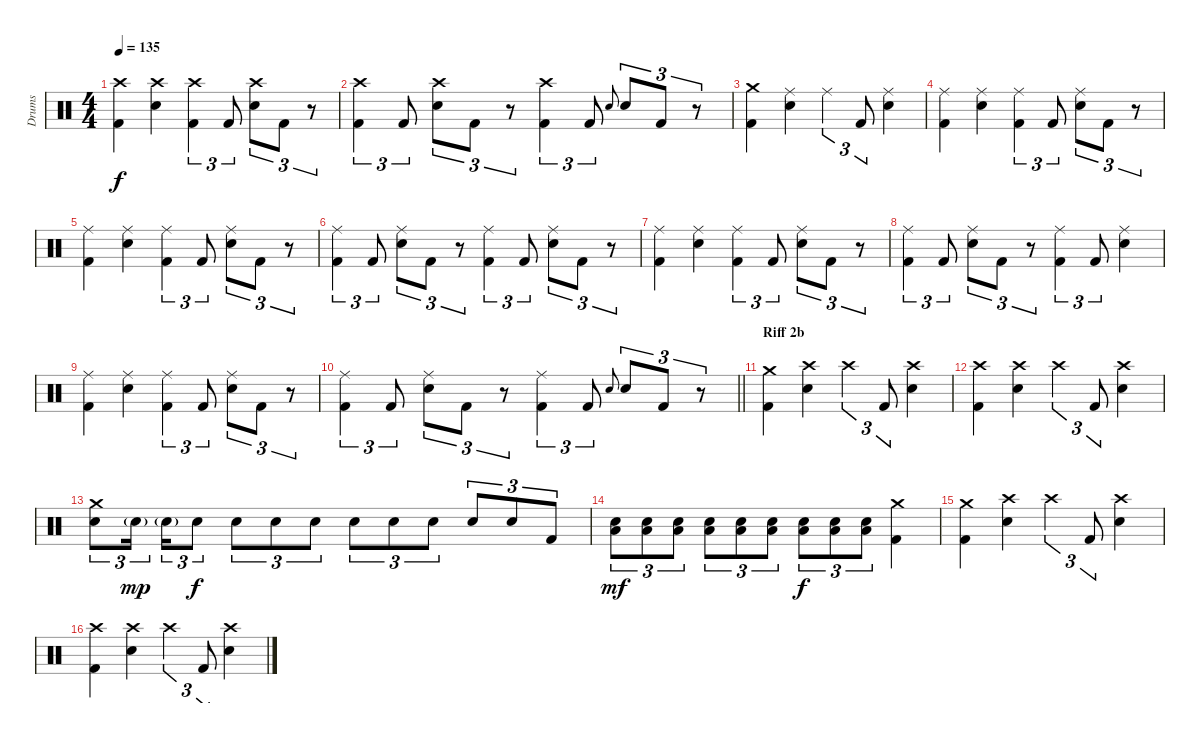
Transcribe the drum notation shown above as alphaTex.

\track ("Drums" "Drums") {instrument percussion}
\staff {score}
\articulation defaults
\ts (4 4)
\tempo 135
\clef neutral
\ks c
("Kick (hit) 2" "Crash high (hit)").4{dy f} ("Electric Snare (hit)" "Crash high (hit)").4 ("Crash high (hit)" "Kick (hit) 2").4{tu (3 2)} "Kick (hit) 2".8{tu (3 2)} ("Crash high (hit)" "Electric Snare (hit)").8{tu (3 2)} "Kick (hit) 2".8{tu (3 2)} r.8{tu (3 2)} |
("Crash high (hit)" "Kick (hit) 2").4{tu (3 2)} "Kick (hit) 2".8{tu (3 2)} ("Crash high (hit)" "Electric Snare (hit)").8{tu (3 2)} "Kick (hit) 2".8{tu (3 2)} r.8{tu (3 2)} ("Crash high (hit)" "Kick (hit) 2").4{tu (3 2)} "Kick (hit) 2".8{tu (3 2)} "Electric Snare (hit)".8{gr onbeat} "Electric Snare (hit)".8{tu (3 2)} "Kick (hit) 2".8{tu (3 2)} r.8{tu (3 2)} |
("Crash medium (hit)" "Kick (hit) 2").4 ("Ride (middle)" "Electric Snare (hit)").4 "Ride (middle)".4{tu (3 2)} "Kick (hit) 2".8{tu (3 2)} ("Ride (middle)" "Electric Snare (hit)").4 |
("Ride (middle)" "Kick (hit) 2").4 ("Ride (middle)" "Electric Snare (hit)").4 ("Kick (hit) 2" "Ride (middle)").4{tu (3 2)} "Kick (hit) 2".8{tu (3 2)} ("Electric Snare (hit)" "Ride (middle)").8{tu (3 2)} "Kick (hit) 2".8{tu (3 2)} r.8{tu (3 2)} |
("Ride (middle)" "Kick (hit) 2").4 ("Ride (middle)" "Electric Snare (hit)").4 ("Kick (hit) 2" "Ride (middle)").4{tu (3 2)} "Kick (hit) 2".8{tu (3 2)} ("Electric Snare (hit)" "Ride (middle)").8{tu (3 2)} "Kick (hit) 2".8{tu (3 2)} r.8{tu (3 2)} |
("Kick (hit) 2" "Ride (middle)").4{tu (3 2)} "Kick (hit) 2".8{tu (3 2)} ("Electric Snare (hit)" "Ride (middle)").8{tu (3 2)} "Kick (hit) 2".8{tu (3 2)} r.8{tu (3 2)} ("Kick (hit) 2" "Ride (middle)").4{tu (3 2)} "Kick (hit) 2".8{tu (3 2)} ("Electric Snare (hit)" "Ride (middle)").8{tu (3 2)} "Kick (hit) 2".8{tu (3 2)} r.8{tu (3 2)} |
("Ride (middle)" "Kick (hit) 2").4 ("Ride (middle)" "Electric Snare (hit)").4 ("Kick (hit) 2" "Ride (middle)").4{tu (3 2)} "Kick (hit) 2".8{tu (3 2)} ("Electric Snare (hit)" "Ride (middle)").8{tu (3 2)} "Kick (hit) 2".8{tu (3 2)} r.8{tu (3 2)} |
("Kick (hit) 2" "Ride (middle)").4{tu (3 2)} "Kick (hit) 2".8{tu (3 2)} ("Electric Snare (hit)" "Ride (middle)").8{tu (3 2)} "Kick (hit) 2".8{tu (3 2)} r.8{tu (3 2)} ("Kick (hit) 2" "Ride (middle)").4{tu (3 2)} "Kick (hit) 2".8{tu (3 2)} ("Electric Snare (hit)" "Ride (middle)").4 |
("Ride (middle)" "Kick (hit) 2").4 ("Ride (middle)" "Electric Snare (hit)").4 ("Kick (hit) 2" "Ride (middle)").4{tu (3 2)} "Kick (hit) 2".8{tu (3 2)} ("Electric Snare (hit)" "Ride (middle)").8{tu (3 2)} "Kick (hit) 2".8{tu (3 2)} r.8{tu (3 2)} |
\barLineRight lightlight
("Kick (hit) 2" "Ride (middle)").4{tu (3 2)} "Kick (hit) 2".8{tu (3 2)} ("Electric Snare (hit)" "Ride (middle)").8{tu (3 2)} "Kick (hit) 2".8{tu (3 2)} r.8{tu (3 2)} ("Kick (hit) 2" "Ride (middle)").4{tu (3 2)} "Kick (hit) 2".8{tu (3 2)} "Electric Snare (hit)".8{gr onbeat} "Electric Snare (hit)".8{tu (3 2)} "Kick (hit) 2".8{tu (3 2)} r.8{tu (3 2)} |
\section ("" "Riff 2b")
("Crash medium (hit)" "Kick (hit) 2").4 ("Electric Snare (hit)" "Crash high (hit)").4 "Crash high (hit)".4{tu (3 2)} "Kick (hit) 2".8{tu (3 2)} ("Crash high (hit)" "Electric Snare (hit)").4 |
("Crash high (hit)" "Kick (hit) 2").4 ("Electric Snare (hit)" "Crash high (hit)").4 "Crash high (hit)".4{tu (3 2)} "Kick (hit) 2".8{tu (3 2)} ("Crash high (hit)" "Electric Snare (hit)").4 |
("Crash medium (hit)" "Electric Snare (hit)").8{tu (3 2)} "Electric Snare (hit)"{g}.16{tu (3 2) dy mp beam splitsecondary} "Electric Snare (hit)"{g}.16{tu (3 2)} "Electric Snare (hit)".8{tu (3 2) dy f} "Electric Snare (hit)".8{tu (3 2)} "Electric Snare (hit)".8{tu (3 2)} "Electric Snare (hit)".8{tu (3 2)} "Electric Snare (hit)".8{tu (3 2)} "Electric Snare (hit)".8{tu (3 2)} "Electric Snare (hit)".8{tu (3 2)} "Electric Snare (hit)".8{tu (3 2)} "Electric Snare (hit)".8{tu (3 2)} "Kick (hit) 2".8{tu (3 2)} |
("Electric Snare (hit)" "Low Floor Tom (hit)").8{tu (3 2) dy mf} ("Electric Snare (hit)" "Low Floor Tom (hit)").8{tu (3 2)} ("Electric Snare (hit)" "Low Floor Tom (hit)").8{tu (3 2)} ("Electric Snare (hit)" "Low Floor Tom (hit)").8{tu (3 2)} ("Electric Snare (hit)" "Low Floor Tom (hit)").8{tu (3 2)} ("Electric Snare (hit)" "Low Floor Tom (hit)").8{tu (3 2)} ("Electric Snare (hit)" "Low Floor Tom (hit)").8{tu (3 2) dy f} ("Electric Snare (hit)" "Low Floor Tom (hit)").8{tu (3 2)} ("Electric Snare (hit)" "Low Floor Tom (hit)").8{tu (3 2)} ("Crash medium (hit)" "Kick (hit) 2").4 |
("Crash medium (hit)" "Kick (hit) 2").4 ("Electric Snare (hit)" "Crash high (hit)").4 "Crash high (hit)".4{tu (3 2)} "Kick (hit) 2".8{tu (3 2)} ("Crash high (hit)" "Electric Snare (hit)").4 |
("Crash high (hit)" "Kick (hit) 2").4 ("Electric Snare (hit)" "Crash high (hit)").4 "Crash high (hit)".4{tu (3 2)} "Kick (hit) 2".8{tu (3 2)} ("Crash high (hit)" "Electric Snare (hit)").4
